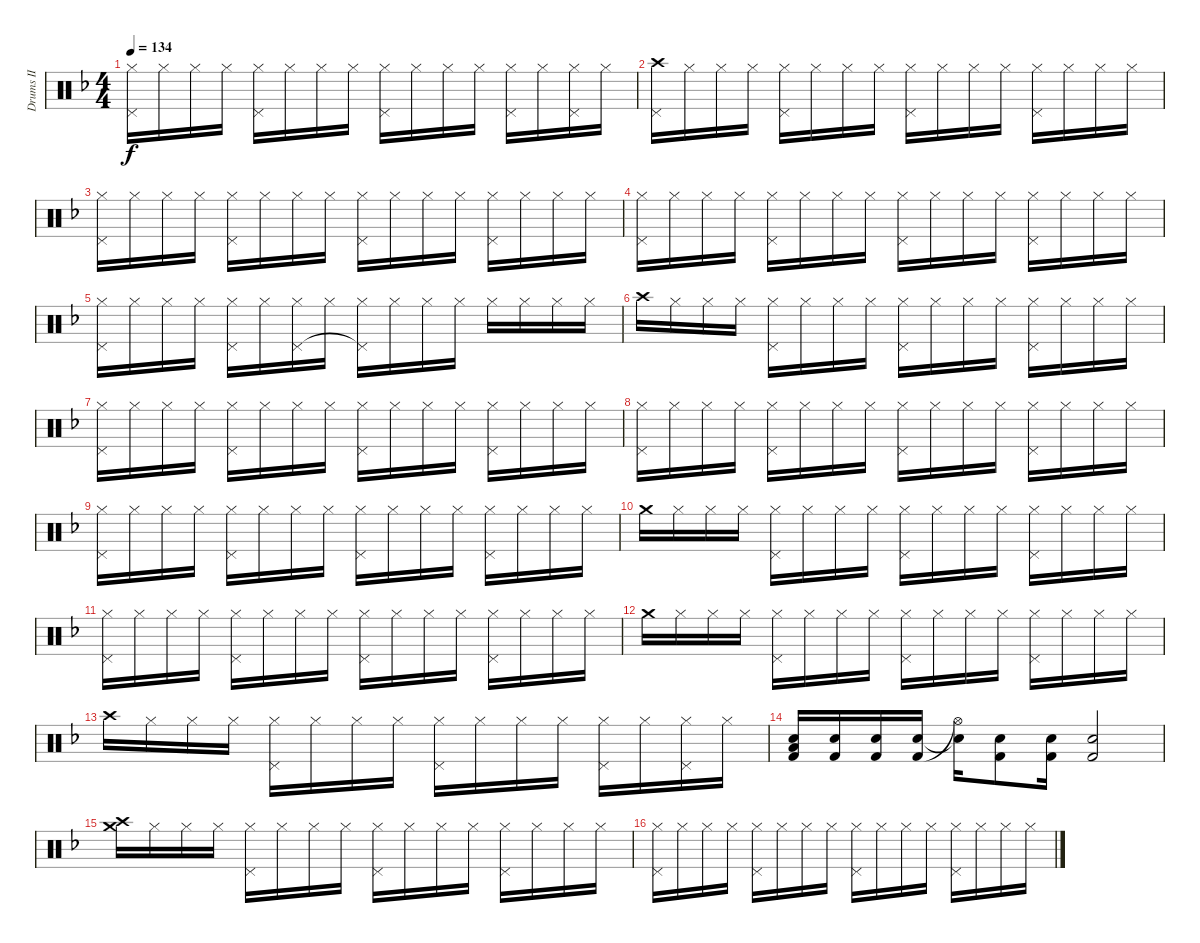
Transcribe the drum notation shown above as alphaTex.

\track ("Drums II" "Drums II") {instrument percussion}
\staff {score}
\articulation defaults
\ts (4 4)
\tempo 134
\clef neutral
\ks f
("Hi-Hat (closed)" "Pedal Hi-Hat (hit)").16{dy f} "Hi-Hat (closed)".16 "Hi-Hat (closed)".16 "Hi-Hat (closed)".16 ("Hi-Hat (closed)" "Pedal Hi-Hat (hit)").16 "Hi-Hat (closed)".16 "Hi-Hat (closed)".16 "Hi-Hat (closed)".16 ("Hi-Hat (closed)" "Pedal Hi-Hat (hit)").16 "Hi-Hat (closed)".16 "Hi-Hat (closed)".16 "Hi-Hat (closed)".16 ("Hi-Hat (closed)" "Pedal Hi-Hat (hit)").16 "Hi-Hat (closed)".16 ("Hi-Hat (closed)" "Pedal Hi-Hat (hit)").16 "Hi-Hat (closed)".16 |
("Crash high (hit)" "Pedal Hi-Hat (hit)").16 "Hi-Hat (closed)".16 "Hi-Hat (closed)".16 "Hi-Hat (closed)".16 ("Hi-Hat (closed)" "Pedal Hi-Hat (hit)").16 "Hi-Hat (closed)".16 "Hi-Hat (closed)".16 "Hi-Hat (closed)".16 ("Hi-Hat (closed)" "Pedal Hi-Hat (hit)").16 "Hi-Hat (closed)".16 "Hi-Hat (closed)".16 "Hi-Hat (closed)".16 ("Hi-Hat (closed)" "Pedal Hi-Hat (hit)").16 "Hi-Hat (closed)".16 "Hi-Hat (closed)".16 "Hi-Hat (closed)".16 |
("Hi-Hat (closed)" "Pedal Hi-Hat (hit)").16 "Hi-Hat (closed)".16 "Hi-Hat (closed)".16 "Hi-Hat (closed)".16 ("Hi-Hat (closed)" "Pedal Hi-Hat (hit)").16 "Hi-Hat (closed)".16 "Hi-Hat (closed)".16 "Hi-Hat (closed)".16 ("Hi-Hat (closed)" "Pedal Hi-Hat (hit)").16 "Hi-Hat (closed)".16 "Hi-Hat (closed)".16 "Hi-Hat (closed)".16 ("Hi-Hat (closed)" "Pedal Hi-Hat (hit)").16 "Hi-Hat (closed)".16 "Hi-Hat (closed)".16 "Hi-Hat (closed)".16 |
("Hi-Hat (closed)" "Pedal Hi-Hat (hit)").16 "Hi-Hat (closed)".16 "Hi-Hat (closed)".16 "Hi-Hat (closed)".16 ("Hi-Hat (closed)" "Pedal Hi-Hat (hit)").16 "Hi-Hat (closed)".16 "Hi-Hat (closed)".16 "Hi-Hat (closed)".16 ("Hi-Hat (closed)" "Pedal Hi-Hat (hit)").16 "Hi-Hat (closed)".16 "Hi-Hat (closed)".16 "Hi-Hat (closed)".16 ("Hi-Hat (closed)" "Pedal Hi-Hat (hit)").16 "Hi-Hat (closed)".16 "Hi-Hat (closed)".16 "Hi-Hat (closed)".16 |
("Hi-Hat (closed)" "Pedal Hi-Hat (hit)").16 "Hi-Hat (closed)".16 "Hi-Hat (closed)".16 "Hi-Hat (closed)".16 ("Hi-Hat (closed)" "Pedal Hi-Hat (hit)").16 "Hi-Hat (closed)".16 ("Hi-Hat (closed)" "Pedal Hi-Hat (hit)").16 "Hi-Hat (closed)".16 ("Hi-Hat (closed)" "Pedal Hi-Hat (hit)"{t}).16 "Hi-Hat (closed)".16 "Hi-Hat (closed)".16 "Hi-Hat (closed)".16 "Hi-Hat (closed)".16 "Hi-Hat (closed)".16 "Hi-Hat (closed)".16 "Hi-Hat (closed)".16 |
"Crash high (hit)".16 "Hi-Hat (closed)".16 "Hi-Hat (closed)".16 "Hi-Hat (closed)".16 ("Hi-Hat (closed)" "Pedal Hi-Hat (hit)").16 "Hi-Hat (closed)".16 "Hi-Hat (closed)".16 "Hi-Hat (closed)".16 ("Hi-Hat (closed)" "Pedal Hi-Hat (hit)").16 "Hi-Hat (closed)".16 "Hi-Hat (closed)".16 "Hi-Hat (closed)".16 ("Hi-Hat (closed)" "Pedal Hi-Hat (hit)").16 "Hi-Hat (closed)".16 "Hi-Hat (closed)".16 "Hi-Hat (closed)".16 |
("Hi-Hat (closed)" "Pedal Hi-Hat (hit)").16 "Hi-Hat (closed)".16 "Hi-Hat (closed)".16 "Hi-Hat (closed)".16 ("Hi-Hat (closed)" "Pedal Hi-Hat (hit)").16 "Hi-Hat (closed)".16 "Hi-Hat (closed)".16 "Hi-Hat (closed)".16 ("Hi-Hat (closed)" "Pedal Hi-Hat (hit)").16 "Hi-Hat (closed)".16 "Hi-Hat (closed)".16 "Hi-Hat (closed)".16 ("Hi-Hat (closed)" "Pedal Hi-Hat (hit)").16 "Hi-Hat (closed)".16 "Hi-Hat (closed)".16 "Hi-Hat (closed)".16 |
("Hi-Hat (closed)" "Pedal Hi-Hat (hit)").16 "Hi-Hat (closed)".16 "Hi-Hat (closed)".16 "Hi-Hat (closed)".16 ("Hi-Hat (closed)" "Pedal Hi-Hat (hit)").16 "Hi-Hat (closed)".16 "Hi-Hat (closed)".16 "Hi-Hat (closed)".16 ("Hi-Hat (closed)" "Pedal Hi-Hat (hit)").16 "Hi-Hat (closed)".16 "Hi-Hat (closed)".16 "Hi-Hat (closed)".16 ("Hi-Hat (closed)" "Pedal Hi-Hat (hit)").16 "Hi-Hat (closed)".16 "Hi-Hat (closed)".16 "Hi-Hat (closed)".16 |
("Hi-Hat (closed)" "Pedal Hi-Hat (hit)").16 "Hi-Hat (closed)".16 "Hi-Hat (closed)".16 "Hi-Hat (closed)".16 ("Hi-Hat (closed)" "Pedal Hi-Hat (hit)").16 "Hi-Hat (closed)".16 "Hi-Hat (closed)".16 "Hi-Hat (closed)".16 ("Hi-Hat (closed)" "Pedal Hi-Hat (hit)").16 "Hi-Hat (closed)".16 "Hi-Hat (closed)".16 "Hi-Hat (closed)".16 ("Hi-Hat (closed)" "Pedal Hi-Hat (hit)").16 "Hi-Hat (closed)".16 "Hi-Hat (closed)".16 "Hi-Hat (closed)".16 |
"Crash medium (hit)".16 "Hi-Hat (closed)".16 "Hi-Hat (closed)".16 "Hi-Hat (closed)".16 ("Hi-Hat (closed)" "Pedal Hi-Hat (hit)").16 "Hi-Hat (closed)".16 "Hi-Hat (closed)".16 "Hi-Hat (closed)".16 ("Hi-Hat (closed)" "Pedal Hi-Hat (hit)").16 "Hi-Hat (closed)".16 "Hi-Hat (closed)".16 "Hi-Hat (closed)".16 ("Hi-Hat (closed)" "Pedal Hi-Hat (hit)").16 "Hi-Hat (closed)".16 "Hi-Hat (closed)".16 "Hi-Hat (closed)".16 |
("Hi-Hat (closed)" "Pedal Hi-Hat (hit)").16 "Hi-Hat (closed)".16 "Hi-Hat (closed)".16 "Hi-Hat (closed)".16 ("Hi-Hat (closed)" "Pedal Hi-Hat (hit)").16 "Hi-Hat (closed)".16 "Hi-Hat (closed)".16 "Hi-Hat (closed)".16 ("Hi-Hat (closed)" "Pedal Hi-Hat (hit)").16 "Hi-Hat (closed)".16 "Hi-Hat (closed)".16 "Hi-Hat (closed)".16 ("Hi-Hat (closed)" "Pedal Hi-Hat (hit)").16 "Hi-Hat (closed)".16 "Hi-Hat (closed)".16 "Hi-Hat (closed)".16 |
"Crash medium (hit)".16 "Hi-Hat (closed)".16 "Hi-Hat (closed)".16 "Hi-Hat (closed)".16 ("Hi-Hat (closed)" "Pedal Hi-Hat (hit)").16 "Hi-Hat (closed)".16 "Hi-Hat (closed)".16 "Hi-Hat (closed)".16 ("Hi-Hat (closed)" "Pedal Hi-Hat (hit)").16 "Hi-Hat (closed)".16 "Hi-Hat (closed)".16 "Hi-Hat (closed)".16 ("Hi-Hat (closed)" "Pedal Hi-Hat (hit)").16 "Hi-Hat (closed)".16 "Hi-Hat (closed)".16 "Hi-Hat (closed)".16 |
"Crash high (hit)".16 "Hi-Hat (closed)".16 "Hi-Hat (closed)".16 "Hi-Hat (closed)".16 ("Hi-Hat (closed)" "Pedal Hi-Hat (hit)").16 "Hi-Hat (closed)".16 "Hi-Hat (closed)".16 "Hi-Hat (closed)".16 ("Hi-Hat (closed)" "Pedal Hi-Hat (hit)").16 "Hi-Hat (closed)".16 "Hi-Hat (closed)".16 "Hi-Hat (closed)".16 ("Hi-Hat (closed)" "Pedal Hi-Hat (hit)").16 "Hi-Hat (closed)".16 ("Hi-Hat (closed)" "Pedal Hi-Hat (hit)").16 "Hi-Hat (closed)".16 |
("Snare (hit) 2" "Low Floor Tom (hit)" "Kick (hit) 2").16 ("Snare (hit) 2" "Kick (hit) 2").16 ("Snare (hit) 2" "Kick (hit) 2").16 ("Snare (hit) 2" "Kick (hit) 2").16 ("Snare (hit) 2"{t} "Hi-Hat (open)"{t}).16 ("Snare (hit) 2" "Kick (hit) 2").8 ("Snare (hit) 2" "Kick (hit) 2").16 ("Snare (hit) 2" "Kick (hit) 2").2 |
("Crash medium (hit)" "Crash high (hit)").16 "Hi-Hat (closed)".16 "Hi-Hat (closed)".16 "Hi-Hat (closed)".16 ("Hi-Hat (closed)" "Pedal Hi-Hat (hit)").16 "Hi-Hat (closed)".16 "Hi-Hat (closed)".16 "Hi-Hat (closed)".16 ("Hi-Hat (closed)" "Pedal Hi-Hat (hit)").16 "Hi-Hat (closed)".16 "Hi-Hat (closed)".16 "Hi-Hat (closed)".16 ("Hi-Hat (closed)" "Pedal Hi-Hat (hit)").16 "Hi-Hat (closed)".16 "Hi-Hat (closed)".16 "Hi-Hat (closed)".16 |
("Hi-Hat (closed)" "Pedal Hi-Hat (hit)").16 "Hi-Hat (closed)".16 "Hi-Hat (closed)".16 "Hi-Hat (closed)".16 ("Hi-Hat (closed)" "Pedal Hi-Hat (hit)").16 "Hi-Hat (closed)".16 "Hi-Hat (closed)".16 "Hi-Hat (closed)".16 ("Hi-Hat (closed)" "Pedal Hi-Hat (hit)").16 "Hi-Hat (closed)".16 "Hi-Hat (closed)".16 "Hi-Hat (closed)".16 ("Hi-Hat (closed)" "Pedal Hi-Hat (hit)").16 "Hi-Hat (closed)".16 "Hi-Hat (closed)".16 "Hi-Hat (closed)".16
